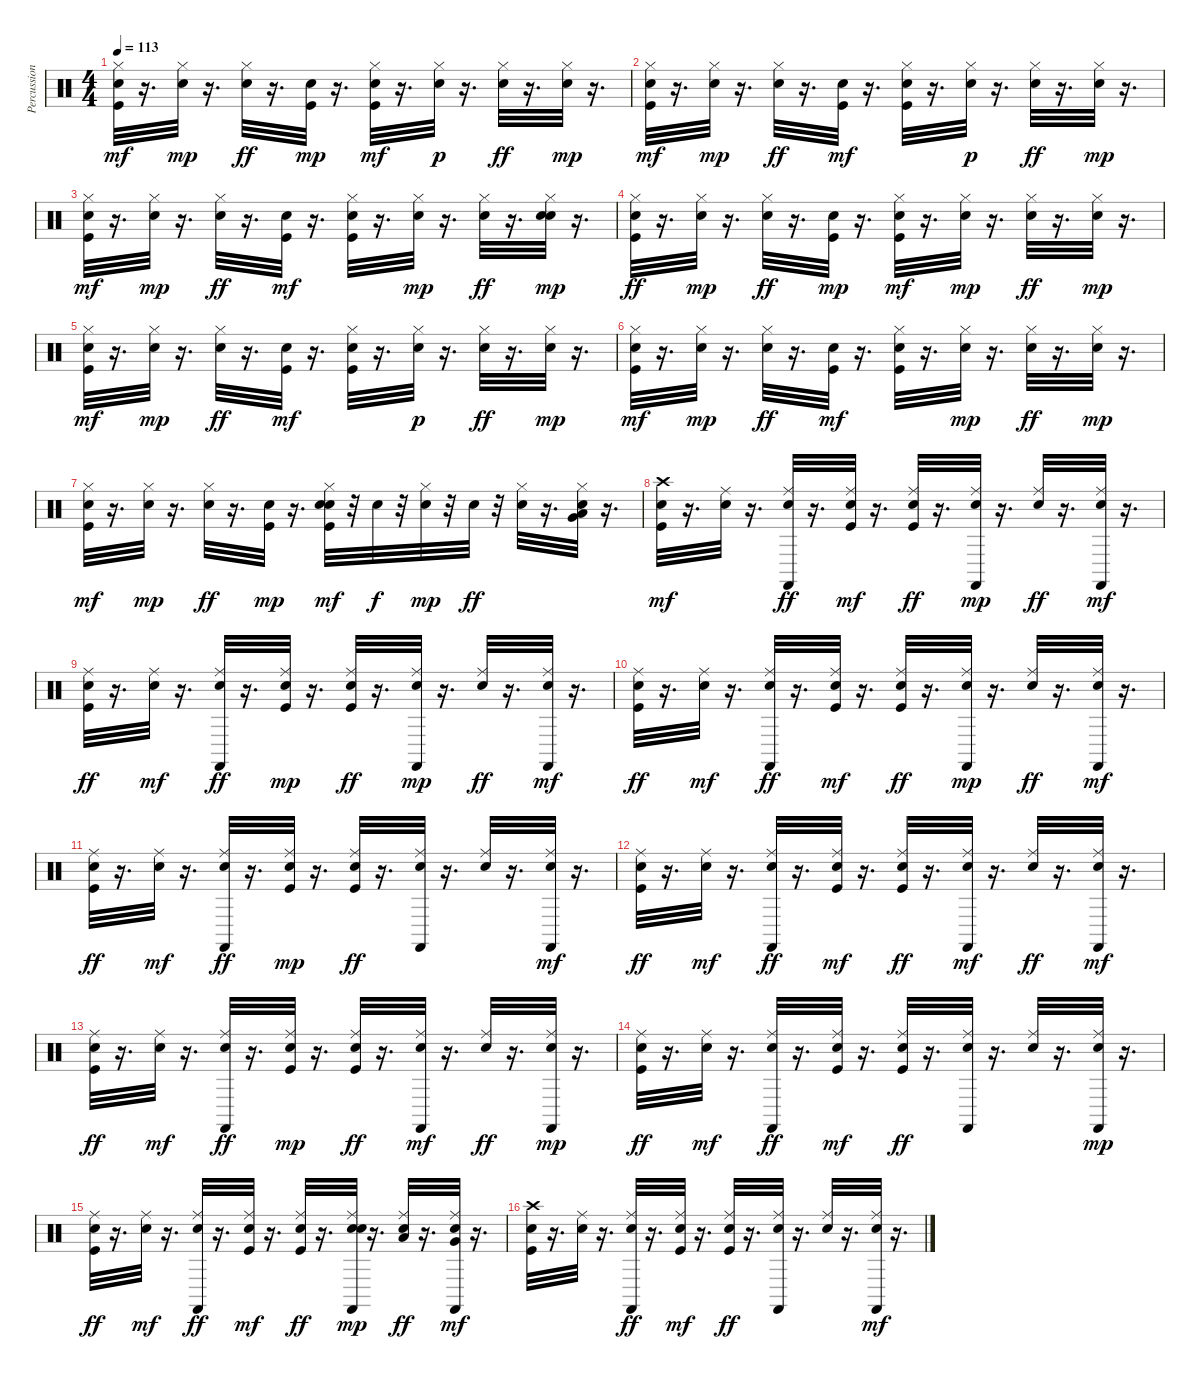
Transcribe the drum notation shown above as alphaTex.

\track ("Percussions" "Percussion") {instrument percussion}
\staff {score}
\articulation defaults
\ts (4 4)
\tempo 113
\clef neutral
\ks c
("Kick (hit)" "Snare (hit) 2" "Hi-Hat (closed)").32{dy mf} r.16{d} ("Snare (hit) 2" "Hi-Hat (closed)").32{dy mp} r.16{d} ("Hand Clap (hit)" "Hi-Hat (closed)").32{dy ff} r.16{d} ("Kick (hit)" "Snare (hit) 2").32{dy mp} r.16{d} ("Kick (hit)" "Snare (hit) 2" "Hi-Hat (closed)").32{dy mf} r.16{d} ("Snare (hit) 2" "Hi-Hat (closed)").32{dy p} r.16{d} ("Hand Clap (hit)" "Hi-Hat (closed)").32{dy ff} r.16{d} ("Snare (hit) 2" "Hi-Hat (closed)").32{dy mp} r.16{d} |
("Kick (hit)" "Snare (hit) 2" "Hi-Hat (closed)").32{dy mf} r.16{d} ("Snare (hit) 2" "Hi-Hat (closed)").32{dy mp} r.16{d} ("Hand Clap (hit)" "Hi-Hat (closed)").32{dy ff} r.16{d} ("Kick (hit)" "Snare (hit) 2").32{dy mf} r.16{d} ("Kick (hit)" "Snare (hit) 2" "Hi-Hat (closed)").32 r.16{d} ("Snare (hit) 2" "Hi-Hat (closed)").32{dy p} r.16{d} ("Hand Clap (hit)" "Hi-Hat (closed)").32{dy ff} r.16{d} ("Snare (hit) 2" "Hi-Hat (closed)").32{dy mp} r.16{d} |
("Kick (hit)" "Snare (hit) 2" "Hi-Hat (closed)").32{dy mf} r.16{d} ("Snare (hit) 2" "Hi-Hat (closed)").32{dy mp} r.16{d} ("Hand Clap (hit)" "Hi-Hat (closed)").32{dy ff} r.16{d} ("Kick (hit)" "Snare (hit) 2").32{dy mf} r.16{d} ("Kick (hit)" "Snare (hit) 2" "Hi-Hat (closed)").32 r.16{d} ("Snare (hit) 2" "Hi-Hat (closed)").32{dy mp} r.16{d} ("Hand Clap (hit)" "Hi-Hat (closed)").32{dy ff} r.16{d} ("Snare (hit) 2" "Hand Clap (hit)" "Hi-Hat (closed)").32{dy mp} r.16{d} |
("Kick (hit)" "Snare (hit) 2" "Hi-Hat (closed)").32{dy ff} r.16{d} ("Snare (hit) 2" "Hi-Hat (closed)").32{dy mp} r.16{d} ("Hand Clap (hit)" "Hi-Hat (closed)").32{dy ff} r.16{d} ("Kick (hit)" "Snare (hit) 2").32{dy mp} r.16{d} ("Kick (hit)" "Snare (hit) 2" "Hi-Hat (closed)").32{dy mf} r.16{d} ("Snare (hit) 2" "Hi-Hat (closed)").32{dy mp} r.16{d} ("Hand Clap (hit)" "Hi-Hat (closed)").32{dy ff} r.16{d} ("Snare (hit) 2" "Hi-Hat (closed)").32{dy mp} r.16{d} |
("Kick (hit)" "Snare (hit) 2" "Hi-Hat (closed)").32{dy mf} r.16{d} ("Snare (hit) 2" "Hi-Hat (closed)").32{dy mp} r.16{d} ("Hand Clap (hit)" "Hi-Hat (closed)").32{dy ff} r.16{d} ("Kick (hit)" "Snare (hit) 2").32{dy mf} r.16{d} ("Kick (hit)" "Snare (hit) 2" "Hi-Hat (closed)").32 r.16{d} ("Snare (hit) 2" "Hi-Hat (closed)").32{dy p} r.16{d} ("Hand Clap (hit)" "Hi-Hat (closed)").32{dy ff} r.16{d} ("Snare (hit) 2" "Hi-Hat (closed)").32{dy mp} r.16{d} |
("Kick (hit)" "Snare (hit) 2" "Hi-Hat (closed)").32{dy mf} r.16{d} ("Snare (hit) 2" "Hi-Hat (closed)").32{dy mp} r.16{d} ("Hand Clap (hit)" "Hi-Hat (closed)").32{dy ff} r.16{d} ("Kick (hit)" "Snare (hit) 2").32{dy mf} r.16{d} ("Kick (hit)" "Snare (hit) 2" "Hi-Hat (closed)").32 r.16{d} ("Snare (hit) 2" "Hi-Hat (closed)").32{dy mp} r.16{d} ("Hand Clap (hit)" "Hi-Hat (closed)").32{dy ff} r.16{d} ("Snare (hit) 2" "Hi-Hat (closed)").32{dy mp} r.16{d} |
("Kick (hit)" "Snare (hit) 2" "Hi-Hat (closed)").32{dy mf} r.16{d} ("Snare (hit) 2" "Hi-Hat (closed)").32{dy mp} r.16{d} ("Hand Clap (hit)" "Hi-Hat (closed)").32{dy ff} r.16{d} ("Kick (hit)" "Snare (hit) 2").32{dy mp} r.16{d} ("Kick (hit)" "Snare (hit) 2" "Hand Clap (hit)" "Hi-Hat (closed)").32{dy mf} r.32 "Snare (hit) 2".32{dy f} r.32 ("Snare (hit) 2" "Hi-Hat (closed)").32{dy mp} r.32 "Snare (hit) 2".32{dy ff} r.32 ("Hand Clap (hit)" "Hi-Hat (closed)").32 r.16{d} ("Snare (hit) 2" "Low Floor Tom (hit)" "Hi-Hat (closed)" "Very Low Tom (hit)").32 r.16{d} |
("Kick (hit)" "Snare (hit) 2" "Crash high (hit)").32{dy mf} r.16{d} ("Snare (hit) 2" "Ride (middle)").32 r.16{d} ("Hand Clap (hit)" "Ride (middle)" "Castanets (hit)").32{dy ff} r.16{d} ("Kick (hit)" "Snare (hit) 2" "Ride (middle)").32{dy mf} r.16{d} ("Kick (hit)" "Snare (hit) 2" "Ride (middle)").32{dy ff} r.16{d} ("Snare (hit) 2" "Ride (middle)" "Castanets (hit)").32{dy mp} r.16{d} ("Hand Clap (hit)" "Ride (middle)").32{dy ff} r.16{d} ("Snare (hit) 2" "Ride (middle)" "Castanets (hit)").32{dy mf} r.16{d} |
("Kick (hit)" "Snare (hit) 2" "Ride (middle)").32{dy ff} r.16{d} ("Snare (hit) 2" "Ride (middle)").32{dy mf} r.16{d} ("Hand Clap (hit)" "Ride (middle)" "Castanets (hit)").32{dy ff} r.16{d} ("Kick (hit)" "Snare (hit) 2" "Ride (middle)").32{dy mp} r.16{d} ("Kick (hit)" "Snare (hit) 2" "Ride (middle)").32{dy ff} r.16{d} ("Snare (hit) 2" "Ride (middle)" "Castanets (hit)").32{dy mp} r.16{d} ("Hand Clap (hit)" "Ride (middle)").32{dy ff} r.16{d} ("Snare (hit) 2" "Ride (middle)" "Castanets (hit)").32{dy mf} r.16{d} |
("Kick (hit)" "Snare (hit) 2" "Ride (middle)").32{dy ff} r.16{d} ("Snare (hit) 2" "Ride (middle)").32{dy mf} r.16{d} ("Hand Clap (hit)" "Ride (middle)" "Castanets (hit)").32{dy ff} r.16{d} ("Kick (hit)" "Snare (hit) 2" "Ride (middle)").32{dy mf} r.16{d} ("Kick (hit)" "Snare (hit) 2" "Ride (middle)").32{dy ff} r.16{d} ("Snare (hit) 2" "Ride (middle)" "Castanets (hit)").32{dy mp} r.16{d} ("Hand Clap (hit)" "Ride (middle)").32{dy ff} r.16{d} ("Snare (hit) 2" "Ride (middle)" "Castanets (hit)").32{dy mf} r.16{d} |
("Kick (hit)" "Snare (hit) 2" "Ride (middle)").32{dy ff} r.16{d} ("Snare (hit) 2" "Ride (middle)").32{dy mf} r.16{d} ("Hand Clap (hit)" "Ride (middle)" "Castanets (hit)").32{dy ff} r.16{d} ("Kick (hit)" "Snare (hit) 2" "Ride (middle)").32{dy mp} r.16{d} ("Kick (hit)" "Snare (hit) 2" "Ride (middle)").32{dy ff} r.16{d} ("Snare (hit) 2" "Ride (middle)" "Castanets (hit)").32 r.16{d} ("Hand Clap (hit)" "Ride (middle)").32 r.16{d} ("Snare (hit) 2" "Ride (middle)" "Castanets (hit)").32{dy mf} r.16{d} |
("Kick (hit)" "Snare (hit) 2" "Ride (middle)").32{dy ff} r.16{d} ("Snare (hit) 2" "Ride (middle)").32{dy mf} r.16{d} ("Hand Clap (hit)" "Ride (middle)" "Castanets (hit)").32{dy ff} r.16{d} ("Kick (hit)" "Snare (hit) 2" "Ride (middle)").32{dy mf} r.16{d} ("Kick (hit)" "Snare (hit) 2" "Ride (middle)").32{dy ff} r.16{d} ("Snare (hit) 2" "Ride (middle)" "Castanets (hit)").32{dy mf} r.16{d} ("Hand Clap (hit)" "Ride (middle)").32{dy ff} r.16{d} ("Snare (hit) 2" "Ride (middle)" "Castanets (hit)").32{dy mf} r.16{d} |
("Kick (hit)" "Snare (hit) 2" "Ride (middle)").32{dy ff} r.16{d} ("Snare (hit) 2" "Ride (middle)").32{dy mf} r.16{d} ("Hand Clap (hit)" "Ride (middle)" "Castanets (hit)").32{dy ff} r.16{d} ("Kick (hit)" "Snare (hit) 2" "Ride (middle)").32{dy mp} r.16{d} ("Kick (hit)" "Snare (hit) 2" "Ride (middle)").32{dy ff} r.16{d} ("Snare (hit) 2" "Ride (middle)" "Castanets (hit)").32{dy mf} r.16{d} ("Hand Clap (hit)" "Ride (middle)").32{dy ff} r.16{d} ("Snare (hit) 2" "Ride (middle)" "Castanets (hit)").32{dy mp} r.16{d} |
("Kick (hit)" "Snare (hit) 2" "Ride (middle)").32{dy ff} r.16{d} ("Snare (hit) 2" "Ride (middle)").32{dy mf} r.16{d} ("Hand Clap (hit)" "Ride (middle)" "Castanets (hit)").32{dy ff} r.16{d} ("Kick (hit)" "Snare (hit) 2" "Ride (middle)").32{dy mf} r.16{d} ("Kick (hit)" "Snare (hit) 2" "Ride (middle)").32{dy ff} r.16{d} ("Snare (hit) 2" "Ride (middle)" "Castanets (hit)").32 r.16{d} ("Hand Clap (hit)" "Ride (middle)").32 r.16{d} ("Snare (hit) 2" "Ride (middle)" "Castanets (hit)").32{dy mp} r.16{d} |
("Kick (hit)" "Snare (hit) 2" "Ride (middle)").32{dy ff} r.16{d} ("Snare (hit) 2" "Ride (middle)").32{dy mf} r.16{d} ("Hand Clap (hit)" "Ride (middle)" "Castanets (hit)").32{dy ff} r.16{d} ("Kick (hit)" "Snare (hit) 2" "Ride (middle)").32{dy mf} r.16{d} ("Kick (hit)" "Snare (hit) 2" "Ride (middle)").32{dy ff} r.16{d} ("Snare (hit) 2" "Hand Clap (hit)" "Ride (middle)" "Castanets (hit)").32{dy mp} r.16{d} ("Hand Clap (hit)" "Low Tom (hit)" "Ride (middle)").32{dy ff} r.16{d} ("Snare (hit) 2" "Very Low Tom (hit)" "Ride (middle)" "Castanets (hit)").32{dy mf} r.16{d} |
("Kick (hit)" "Snare (hit) 2" "Crash high (hit)").32 r.16{d} ("Snare (hit) 2" "Ride (middle)").32 r.16{d} ("Hand Clap (hit)" "Ride (middle)" "Castanets (hit)").32{dy ff} r.16{d} ("Kick (hit)" "Snare (hit) 2" "Ride (middle)").32{dy mf} r.16{d} ("Kick (hit)" "Snare (hit) 2" "Ride (middle)").32{dy ff} r.16{d} ("Snare (hit) 2" "Ride (middle)" "Castanets (hit)").32 r.16{d} ("Hand Clap (hit)" "Ride (middle)").32 r.16{d} ("Snare (hit) 2" "Ride (middle)" "Castanets (hit)").32{dy mf} r.16{d}
